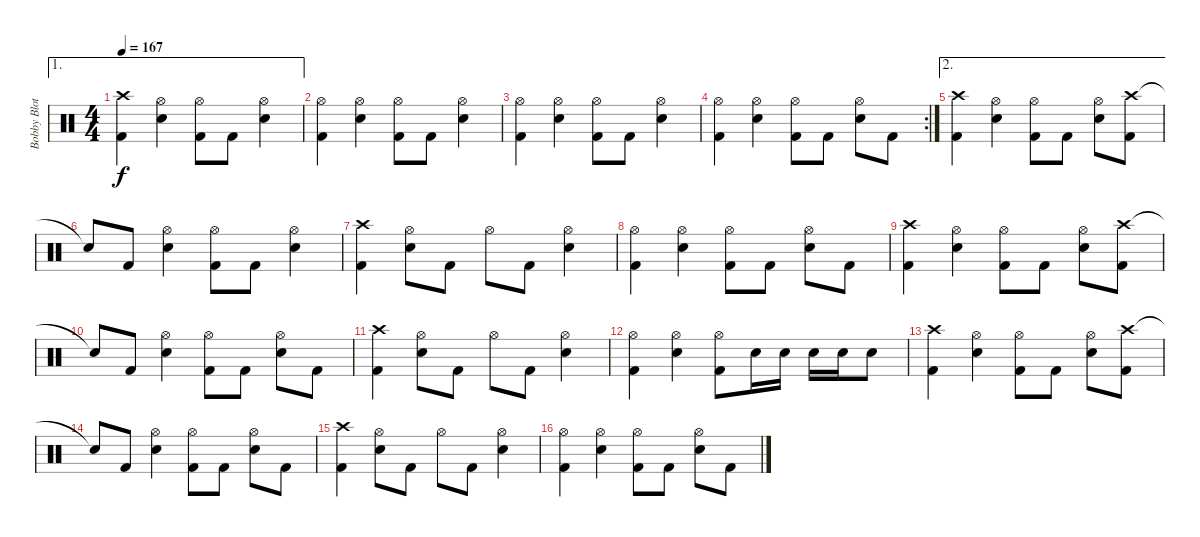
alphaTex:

\track ("Bobby Blotzer" "Bobby Blot") {instrument percussion}
\staff {score}
\articulation defaults
\ae 1
\ts (4 4)
\tempo 167
\clef neutral
\ks c
("Crash high (hit)" "Kick (hit) 2").4{dy f} ("Hi-Hat (open)" "Electric Snare (hit)").4 ("Hi-Hat (open)" "Kick (hit) 2").8 "Kick (hit) 2".8 ("Hi-Hat (open)" "Electric Snare (hit)").4 |
("Hi-Hat (open)" "Kick (hit) 2").4 ("Hi-Hat (open)" "Electric Snare (hit)").4 ("Hi-Hat (open)" "Kick (hit) 2").8 "Kick (hit) 2".8 ("Hi-Hat (open)" "Electric Snare (hit)").4 |
("Hi-Hat (open)" "Kick (hit) 2").4 ("Hi-Hat (open)" "Electric Snare (hit)").4 ("Hi-Hat (open)" "Kick (hit) 2").8 "Kick (hit) 2".8 ("Hi-Hat (open)" "Electric Snare (hit)").4 |
\rc 2
("Hi-Hat (open)" "Kick (hit) 2").4 ("Hi-Hat (open)" "Electric Snare (hit)").4 ("Hi-Hat (open)" "Kick (hit) 2").8 "Kick (hit) 2".8 ("Hi-Hat (open)" "Electric Snare (hit)").8 "Kick (hit) 2".8 |
\ae 2
("Crash high (hit)" "Kick (hit) 2").4 ("Hi-Hat (open)" "Electric Snare (hit)").4 ("Hi-Hat (open)" "Kick (hit) 2").8 "Kick (hit) 2".8 ("Hi-Hat (open)" "Electric Snare (hit)").8 ("Crash high (hit)" "Kick (hit) 2").8 |
"Snare (hit)"{t}.8 "Kick (hit) 2".8 ("Hi-Hat (open)" "Electric Snare (hit)").4 ("Hi-Hat (open)" "Kick (hit) 2").8 "Kick (hit) 2".8 ("Hi-Hat (open)" "Electric Snare (hit)").4 |
("Crash high (hit)" "Kick (hit) 2").4 ("Hi-Hat (open)" "Electric Snare (hit)").8 "Kick (hit) 2".8 "Hi-Hat (open)".8 "Kick (hit) 2".8 ("Hi-Hat (open)" "Electric Snare (hit)").4 |
("Hi-Hat (open)" "Kick (hit) 2").4 ("Hi-Hat (open)" "Electric Snare (hit)").4 ("Hi-Hat (open)" "Kick (hit) 2").8 "Kick (hit) 2".8 ("Hi-Hat (open)" "Electric Snare (hit)").8 "Kick (hit) 2".8 |
("Crash high (hit)" "Kick (hit) 2").4 ("Hi-Hat (open)" "Electric Snare (hit)").4 ("Hi-Hat (open)" "Kick (hit) 2").8 "Kick (hit) 2".8 ("Hi-Hat (open)" "Electric Snare (hit)").8 ("Crash high (hit)" "Kick (hit) 2").8 |
"Snare (hit)"{t}.8 "Kick (hit) 2".8 ("Hi-Hat (open)" "Electric Snare (hit)").4 ("Hi-Hat (open)" "Kick (hit) 2").8 "Kick (hit) 2".8 ("Hi-Hat (open)" "Electric Snare (hit)").8 "Kick (hit) 2".8 |
("Crash high (hit)" "Kick (hit) 2").4 ("Hi-Hat (open)" "Electric Snare (hit)").8 "Kick (hit) 2".8 "Hi-Hat (open)".8 "Kick (hit) 2".8 ("Hi-Hat (open)" "Electric Snare (hit)").4 |
("Hi-Hat (open)" "Kick (hit) 2").4 ("Hi-Hat (open)" "Electric Snare (hit)").4 ("Hi-Hat (open)" "Kick (hit) 2").8 "Electric Snare (hit)".16 "Electric Snare (hit)".16 "Electric Snare (hit)".16 "Electric Snare (hit)".16 "Electric Snare (hit)".8 |
("Crash high (hit)" "Kick (hit) 2").4 ("Hi-Hat (open)" "Electric Snare (hit)").4 ("Hi-Hat (open)" "Kick (hit) 2").8 "Kick (hit) 2".8 ("Hi-Hat (open)" "Electric Snare (hit)").8 ("Crash high (hit)" "Kick (hit) 2").8 |
"Snare (hit)"{t}.8 "Kick (hit) 2".8 ("Hi-Hat (open)" "Electric Snare (hit)").4 ("Hi-Hat (open)" "Kick (hit) 2").8 "Kick (hit) 2".8 ("Hi-Hat (open)" "Electric Snare (hit)").8 "Kick (hit) 2".8 |
("Crash high (hit)" "Kick (hit) 2").4 ("Hi-Hat (open)" "Electric Snare (hit)").8 "Kick (hit) 2".8 "Hi-Hat (open)".8 "Kick (hit) 2".8 ("Hi-Hat (open)" "Electric Snare (hit)").4 |
("Hi-Hat (open)" "Kick (hit) 2").4 ("Hi-Hat (open)" "Electric Snare (hit)").4 ("Hi-Hat (open)" "Kick (hit) 2").8 "Kick (hit) 2".8 ("Hi-Hat (open)" "Electric Snare (hit)").8 "Kick (hit) 2".8
